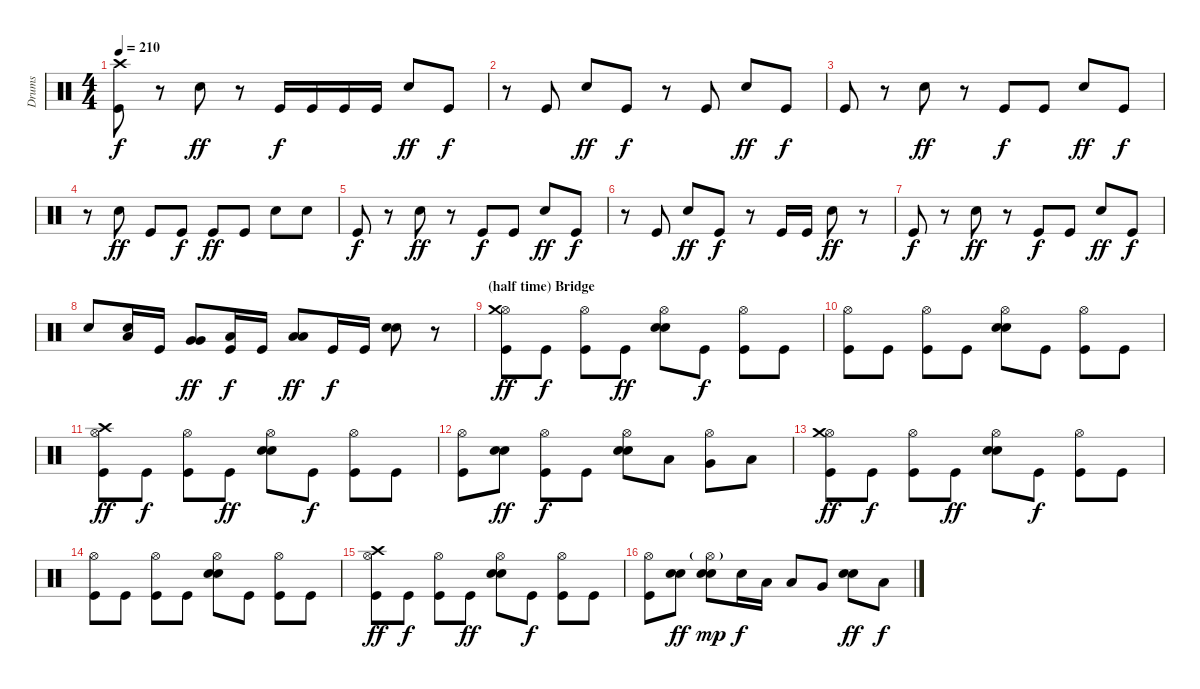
\track ("Drums" "Drums") {instrument percussion}
\staff {score}
\articulation defaults
\ts (4 4)
\tempo 210
\clef neutral
\ks c
("Kick (hit)" "Crash high (hit)").8{dy f} r.8 "Electric Snare (hit)".8{dy ff} r.8 "Kick (hit)".16{dy f} "Kick (hit)".16 "Kick (hit)".16 "Kick (hit)".16 "Electric Snare (hit)".8{dy ff} "Kick (hit)".8{dy f} |
r.8 "Kick (hit)".8 "Electric Snare (hit)".8{dy ff} "Kick (hit)".8{dy f} r.8 "Kick (hit)".8 "Electric Snare (hit)".8{dy ff} "Kick (hit)".8{dy f} |
"Kick (hit)".8 r.8 "Electric Snare (hit)".8{dy ff} r.8 "Kick (hit)".8{dy f} "Kick (hit)".8 "Electric Snare (hit)".8{dy ff} "Kick (hit)".8{dy f} |
r.8 "Electric Snare (hit)".8{dy ff} "Kick (hit)".8 "Kick (hit)".8{dy f} "Kick (hit)".8{dy ff} "Kick (hit)".8 "Electric Snare (hit)".8 "Electric Snare (hit)".8 |
"Kick (hit)".8{dy f} r.8 "Electric Snare (hit)".8{dy ff} r.8 "Kick (hit)".8{dy f} "Kick (hit)".8 "Electric Snare (hit)".8{dy ff} "Kick (hit)".8{dy f} |
r.8 "Kick (hit)".8 "Electric Snare (hit)".8{dy ff} "Kick (hit)".8{dy f} r.8 "Kick (hit)".16 "Kick (hit)".16 "Electric Snare (hit)".8{dy ff} r.8 |
"Kick (hit)".8{dy f} r.8 "Electric Snare (hit)".8{dy ff} r.8 "Kick (hit)".8{dy f} "Kick (hit)".8 "Electric Snare (hit)".8{dy ff} "Kick (hit)".8{dy f} |
"Electric Snare (hit)".8 ("Snare (hit)" "Low Tom (hit)").16 "Kick (hit)".16 ("Very Low Tom (hit)" "Very Low Tom (hit)").8{dy ff} ("Kick (hit)" "Low Tom (hit)").16{dy f} "Kick (hit)".16 ("Low Floor Tom (hit)" "Low Floor Tom (hit)").8{dy ff} "Kick (hit)".16{dy f} "Kick (hit)".16 ("Electric Snare (hit)" "Electric Snare (hit)").8 r.8 |
\section ("" "(half time) Bridge")
("Kick (hit)" "Hi-Hat (open)" "Crash medium (hit)").8{dy ff} "Kick (hit)".8{dy f} ("Kick (hit)" "Hi-Hat (open)").8 "Kick (hit)".8{dy ff} ("Electric Snare (hit)" "Electric Snare (hit)" "Hi-Hat (open)").8 "Kick (hit)".8{dy f} ("Kick (hit)" "Hi-Hat (open)").8 "Kick (hit)".8 |
("Kick (hit)" "Hi-Hat (open)").8 "Kick (hit)".8 ("Kick (hit)" "Hi-Hat (open)").8 "Kick (hit)".8 ("Electric Snare (hit)" "Electric Snare (hit)" "Hi-Hat (open)").8 "Kick (hit)".8 ("Kick (hit)" "Hi-Hat (open)").8 "Kick (hit)".8 |
("Kick (hit)" "Hi-Hat (open)" "Crash high (hit)").8{dy ff} "Kick (hit)".8{dy f} ("Kick (hit)" "Hi-Hat (open)").8 "Kick (hit)".8{dy ff} ("Electric Snare (hit)" "Electric Snare (hit)" "Hi-Hat (open)").8 "Kick (hit)".8{dy f} ("Kick (hit)" "Hi-Hat (open)").8 "Kick (hit)".8 |
("Kick (hit)" "Hi-Hat (open)").8 ("Electric Snare (hit)" "Electric Snare (hit)").8{dy ff} ("Kick (hit)" "Hi-Hat (open)").8{dy f} "Kick (hit)".8 ("Electric Snare (hit)" "Electric Snare (hit)" "Hi-Hat (open)").8 "Low Tom (hit)".8 ("Very Low Tom (hit)" "Hi-Hat (open)").8 "Low Floor Tom (hit)".8 |
("Kick (hit)" "Hi-Hat (open)" "Crash medium (hit)").8{dy ff} "Kick (hit)".8{dy f} ("Kick (hit)" "Hi-Hat (open)").8 "Kick (hit)".8{dy ff} ("Electric Snare (hit)" "Electric Snare (hit)" "Hi-Hat (open)").8 "Kick (hit)".8{dy f} ("Kick (hit)" "Hi-Hat (open)").8 "Kick (hit)".8 |
("Kick (hit)" "Hi-Hat (open)").8 "Kick (hit)".8 ("Kick (hit)" "Hi-Hat (open)").8 "Kick (hit)".8 ("Electric Snare (hit)" "Electric Snare (hit)" "Hi-Hat (open)").8 "Kick (hit)".8 ("Kick (hit)" "Hi-Hat (open)").8 "Kick (hit)".8 |
("Kick (hit)" "Hi-Hat (open)" "Crash high (hit)").8{dy ff} "Kick (hit)".8{dy f} ("Kick (hit)" "Hi-Hat (open)").8 "Kick (hit)".8{dy ff} ("Electric Snare (hit)" "Electric Snare (hit)" "Hi-Hat (open)").8 "Kick (hit)".8{dy f} ("Kick (hit)" "Hi-Hat (open)").8 "Kick (hit)".8 |
("Kick (hit)" "Hi-Hat (open)").8 ("Electric Snare (hit)" "Electric Snare (hit)").8{dy ff} ("Electric Snare (hit)" "Electric Snare (hit)" "Hi-Hat (open)"{g}).8{dy mp} "Electric Snare (hit)".16{dy f} "Low Tom (hit)".16 "Low Tom (hit)".8 "Very Low Tom (hit)".8 ("Electric Snare (hit)" "Electric Snare (hit)").8{dy ff} "Low Floor Tom (hit)".8{dy f}
